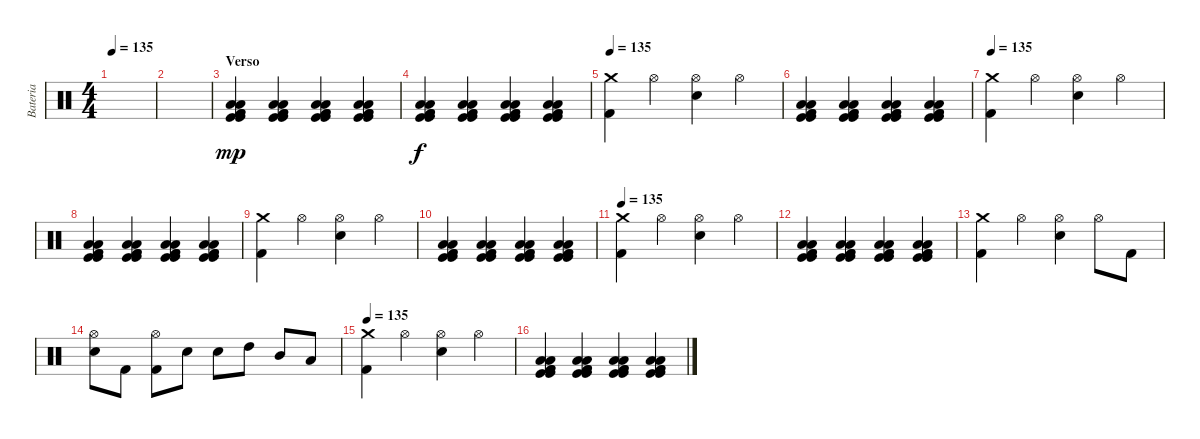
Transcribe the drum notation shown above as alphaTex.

\track ("Bateria" "Bateria") {instrument percussion}
\staff {score}
\articulation defaults
\ts (4 4)
\tempo 135
\clef neutral
\ks c
|
|
\section ("" "Verso")
("Low Floor Tom (hit)" "Kick (hit)" "Kick (hit)" "Kick (hit) 2" "Kick (hit) 2" "Low Floor Tom (hit)").4{dy mp} ("Low Floor Tom (hit)" "Kick (hit)" "Kick (hit)" "Kick (hit) 2" "Kick (hit) 2" "Low Floor Tom (hit)").4 ("Low Floor Tom (hit)" "Kick (hit)" "Kick (hit)" "Kick (hit) 2" "Kick (hit) 2" "Low Floor Tom (hit)").4 ("Low Floor Tom (hit)" "Kick (hit)" "Kick (hit)" "Kick (hit) 2" "Kick (hit) 2" "Low Floor Tom (hit)").4 |
("Low Floor Tom (hit)" "Kick (hit)" "Kick (hit)" "Kick (hit) 2" "Kick (hit) 2" "Low Floor Tom (hit)").4{dy f} ("Low Floor Tom (hit)" "Kick (hit)" "Kick (hit)" "Kick (hit) 2" "Kick (hit) 2" "Low Floor Tom (hit)").4 ("Low Floor Tom (hit)" "Kick (hit)" "Kick (hit)" "Kick (hit) 2" "Kick (hit) 2" "Low Floor Tom (hit)").4 ("Low Floor Tom (hit)" "Kick (hit)" "Kick (hit)" "Kick (hit) 2" "Kick (hit) 2" "Low Floor Tom (hit)").4 |
\tempo 140
\tempo 135
("Kick (hit) 2" "Crash medium (hit)").4 "Hi-Hat (open)".4 ("Hi-Hat (open)" "Snare (hit) 2").4 "Hi-Hat (open)".4 |
("Low Floor Tom (hit)" "Kick (hit)" "Kick (hit)" "Kick (hit) 2" "Kick (hit) 2" "Low Floor Tom (hit)").4 ("Low Floor Tom (hit)" "Kick (hit)" "Kick (hit)" "Kick (hit) 2" "Kick (hit) 2" "Low Floor Tom (hit)").4 ("Low Floor Tom (hit)" "Kick (hit)" "Kick (hit)" "Kick (hit) 2" "Kick (hit) 2" "Low Floor Tom (hit)").4 ("Low Floor Tom (hit)" "Kick (hit)" "Kick (hit)" "Kick (hit) 2" "Kick (hit) 2" "Low Floor Tom (hit)").4 |
\tempo 135
("Kick (hit) 2" "Crash medium (hit)").4 "Hi-Hat (open)".4 ("Hi-Hat (open)" "Snare (hit) 2").4 "Hi-Hat (open)".4 |
("Low Floor Tom (hit)" "Kick (hit)" "Kick (hit)" "Kick (hit) 2" "Kick (hit) 2" "Low Floor Tom (hit)").4 ("Low Floor Tom (hit)" "Kick (hit)" "Kick (hit)" "Kick (hit) 2" "Kick (hit) 2" "Low Floor Tom (hit)").4 ("Low Floor Tom (hit)" "Kick (hit)" "Kick (hit)" "Kick (hit) 2" "Kick (hit) 2" "Low Floor Tom (hit)").4 ("Low Floor Tom (hit)" "Kick (hit)" "Kick (hit)" "Kick (hit) 2" "Kick (hit) 2" "Low Floor Tom (hit)").4 |
("Kick (hit) 2" "Crash medium (hit)").4 "Hi-Hat (open)".4 ("Hi-Hat (open)" "Snare (hit) 2").4 "Hi-Hat (open)".4 |
("Low Floor Tom (hit)" "Kick (hit)" "Kick (hit)" "Kick (hit) 2" "Kick (hit) 2" "Low Floor Tom (hit)").4 ("Low Floor Tom (hit)" "Kick (hit)" "Kick (hit)" "Kick (hit) 2" "Kick (hit) 2" "Low Floor Tom (hit)").4 ("Low Floor Tom (hit)" "Kick (hit)" "Kick (hit)" "Kick (hit) 2" "Kick (hit) 2" "Low Floor Tom (hit)").4 ("Low Floor Tom (hit)" "Kick (hit)" "Kick (hit)" "Kick (hit) 2" "Kick (hit) 2" "Low Floor Tom (hit)").4 |
\tempo 135
("Kick (hit) 2" "Crash medium (hit)").4 "Hi-Hat (open)".4 ("Hi-Hat (open)" "Snare (hit) 2").4 "Hi-Hat (open)".4 |
("Low Floor Tom (hit)" "Kick (hit)" "Kick (hit)" "Kick (hit) 2" "Kick (hit) 2" "Low Floor Tom (hit)").4 ("Low Floor Tom (hit)" "Kick (hit)" "Kick (hit)" "Kick (hit) 2" "Kick (hit) 2" "Low Floor Tom (hit)").4 ("Low Floor Tom (hit)" "Kick (hit)" "Kick (hit)" "Kick (hit) 2" "Kick (hit) 2" "Low Floor Tom (hit)").4 ("Low Floor Tom (hit)" "Kick (hit)" "Kick (hit)" "Kick (hit) 2" "Kick (hit) 2" "Low Floor Tom (hit)").4 |
("Kick (hit) 2" "Crash medium (hit)").4 "Hi-Hat (open)".4 ("Hi-Hat (open)" "Snare (hit) 2").4 "Hi-Hat (open)".8 "Kick (hit) 2".8 |
("Hi-Hat (open)" "Snare (hit) 2").8 "Kick (hit) 2".8 ("Kick (hit) 2" "Hi-Hat (open)").8 "Snare (hit) 2".8 "Snare (hit) 2".8 "High Tom (hit)".8 "Mid Tom (hit)".8 "Low Tom (hit)".8 |
\tempo 135
("Kick (hit) 2" "Crash medium (hit)").4 "Hi-Hat (open)".4 ("Hi-Hat (open)" "Snare (hit) 2").4 "Hi-Hat (open)".4 |
("Low Floor Tom (hit)" "Kick (hit)" "Kick (hit)" "Kick (hit) 2" "Kick (hit) 2" "Low Floor Tom (hit)").4 ("Low Floor Tom (hit)" "Kick (hit)" "Kick (hit)" "Kick (hit) 2" "Kick (hit) 2" "Low Floor Tom (hit)").4 ("Low Floor Tom (hit)" "Kick (hit)" "Kick (hit)" "Kick (hit) 2" "Kick (hit) 2" "Low Floor Tom (hit)").4 ("Low Floor Tom (hit)" "Kick (hit)" "Kick (hit)" "Kick (hit) 2" "Kick (hit) 2" "Low Floor Tom (hit)").4
